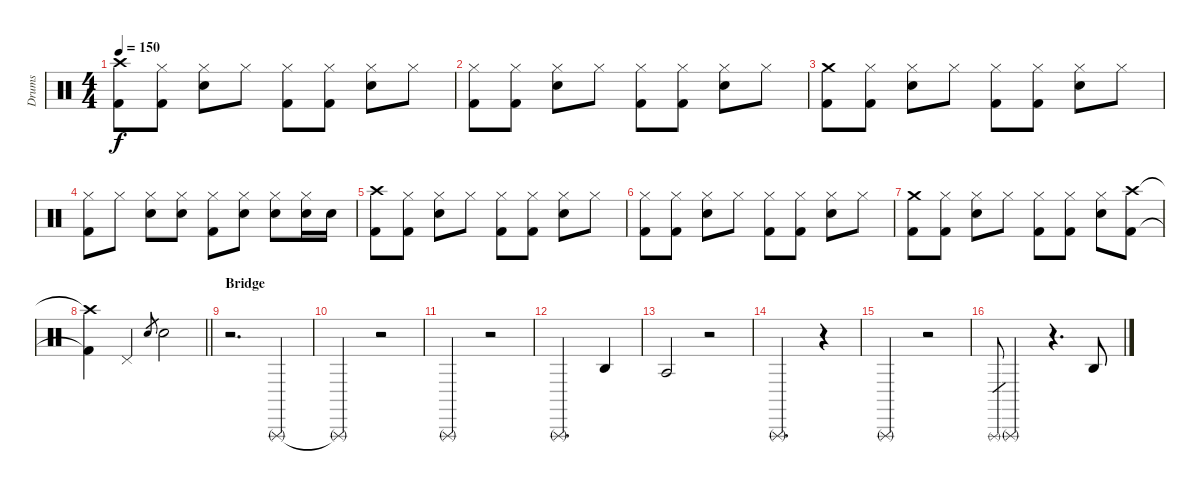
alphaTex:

\track ("Drums" "Drums") {instrument percussion}
\staff {score}
\articulation defaults
\ts (4 4)
\tempo 150
\clef neutral
\ks c
("Kick (hit) 2" "Crash high (hit)").8{dy f} ("Kick (hit) 2" "Hi-Hat (closed)").8 ("Hi-Hat (closed)" "Snare (hit) 2").8 "Hi-Hat (closed)".8 ("Kick (hit) 2" "Hi-Hat (closed)").8 ("Kick (hit) 2" "Hi-Hat (closed)").8 ("Hi-Hat (closed)" "Snare (hit) 2").8 "Hi-Hat (closed)".8 |
("Kick (hit) 2" "Hi-Hat (closed)").8 ("Kick (hit) 2" "Hi-Hat (closed)").8 ("Hi-Hat (closed)" "Snare (hit) 2").8 "Hi-Hat (closed)".8 ("Kick (hit) 2" "Hi-Hat (closed)").8 ("Kick (hit) 2" "Hi-Hat (closed)").8 ("Hi-Hat (closed)" "Snare (hit) 2").8 "Hi-Hat (closed)".8 |
("Kick (hit) 2" "Crash medium (hit)").8 ("Kick (hit) 2" "Hi-Hat (closed)").8 ("Hi-Hat (closed)" "Snare (hit) 2").8 "Hi-Hat (closed)".8 ("Kick (hit) 2" "Hi-Hat (closed)").8 ("Kick (hit) 2" "Hi-Hat (closed)").8 ("Hi-Hat (closed)" "Snare (hit) 2").8 "Hi-Hat (closed)".8 |
("Kick (hit) 2" "Hi-Hat (closed)").8 "Hi-Hat (closed)".8 ("Hi-Hat (closed)" "Snare (hit) 2").8 ("Hi-Hat (closed)" "Snare (hit) 2").8 ("Kick (hit) 2" "Hi-Hat (closed)").8 ("Hi-Hat (closed)" "Snare (hit) 2").8 ("Hi-Hat (closed)" "Snare (hit) 2").8 ("Hi-Hat (closed)" "Snare (hit) 2").16 "Snare (hit) 2".16 |
("Kick (hit) 2" "Crash high (hit)").8 ("Kick (hit) 2" "Hi-Hat (closed)").8 ("Hi-Hat (closed)" "Snare (hit) 2").8 "Hi-Hat (closed)".8 ("Kick (hit) 2" "Hi-Hat (closed)").8 ("Kick (hit) 2" "Hi-Hat (closed)").8 ("Hi-Hat (closed)" "Snare (hit) 2").8 "Hi-Hat (closed)".8 |
("Kick (hit) 2" "Hi-Hat (closed)").8 ("Kick (hit) 2" "Hi-Hat (closed)").8 ("Hi-Hat (closed)" "Snare (hit) 2").8 "Hi-Hat (closed)".8 ("Kick (hit) 2" "Hi-Hat (closed)").8 ("Kick (hit) 2" "Hi-Hat (closed)").8 ("Hi-Hat (closed)" "Snare (hit) 2").8 "Hi-Hat (closed)".8 |
("Kick (hit) 2" "Crash medium (hit)").8 ("Kick (hit) 2" "Hi-Hat (closed)").8 ("Hi-Hat (closed)" "Snare (hit) 2").8 "Hi-Hat (closed)".8 ("Kick (hit) 2" "Hi-Hat (closed)").8 ("Kick (hit) 2" "Hi-Hat (closed)").8 ("Hi-Hat (closed)" "Snare (hit) 2").8 ("Kick (hit) 2" "Crash high (hit)").8 |
\barLineRight lightlight
("Kick (hit) 2"{t} "Crash high (hit)"{t}).4 "Pedal Hi-Hat (hit)".4 "Snare (hit) 2".8{gr} "Snare (hit) 2".2 |
\section ("" "Bridge")
r.2{d} "Triangle (rnute)".4 |
"Triangle (rnute)"{t}.2 r.2 |
"Triangle (rnute)".2 r.2 |
"Triangle (rnute)".2{d} "Agogo high (hit)".4 |
"Agogo tow (hit)".2 r.2 |
"Triangle (rnute)".2{d} r.4 |
"Triangle (rnute)".2 r.2 |
"Triangle (rnute)".8{gr} "Triangle (rnute)".2 r.4{d} "Agogo high (hit)".8
